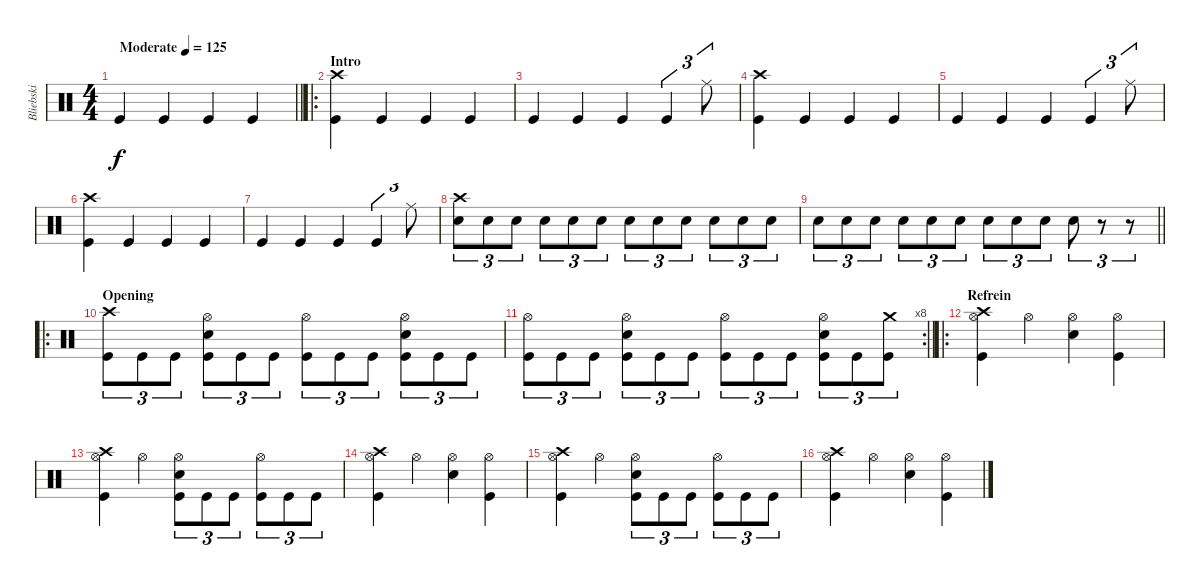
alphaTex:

\track ("Bliebski" "Bliebski") {instrument percussion}
\staff {score}
\articulation defaults
\ts (4 4)
\tempo (125 "Moderate")
\clef neutral
\barLineRight lightlight
\ks c "Kick (hit)".4{dy f} "Kick (hit)".4 "Kick (hit)".4 "Kick (hit)".4
|
\ro
\section ("" "Intro")
("Kick (hit)" "Crash high (hit)").4 "Kick (hit)".4 "Kick (hit)".4 "Kick (hit)".4 |
"Kick (hit)".4 "Kick (hit)".4 "Kick (hit)".4 "Kick (hit)".4{tu (3 2)} "Ride (middle)".8{tu (3 2)} |
("Kick (hit)" "Crash high (hit)").4 "Kick (hit)".4 "Kick (hit)".4 "Kick (hit)".4 |
"Kick (hit)".4 "Kick (hit)".4 "Kick (hit)".4 "Kick (hit)".4{tu (3 2)} "Ride (middle)".8{tu (3 2)} |
("Kick (hit)" "Crash high (hit)").4 "Kick (hit)".4 "Kick (hit)".4 "Kick (hit)".4 |
"Kick (hit)".4 "Kick (hit)".4 "Kick (hit)".4 "Kick (hit)".4{tu (3 2)} "Ride (middle)".8{tu (3 2)} |
("Snare (hit) 2" "Crash high (hit)").8{tu (3 2)} "Snare (hit) 2".8{tu (3 2)} "Snare (hit) 2".8{tu (3 2)} "Snare (hit) 2".8{tu (3 2)} "Snare (hit) 2".8{tu (3 2)} "Snare (hit) 2".8{tu (3 2)} "Snare (hit) 2".8{tu (3 2)} "Snare (hit) 2".8{tu (3 2)} "Snare (hit) 2".8{tu (3 2)} "Snare (hit) 2".8{tu (3 2)} "Snare (hit) 2".8{tu (3 2)} "Snare (hit) 2".8{tu (3 2)} |
\barLineRight lightlight "Snare (hit) 2".8{tu (3 2)} "Snare (hit) 2".8{tu (3 2)} "Snare (hit) 2".8{tu (3 2)} "Snare (hit) 2".8{tu (3 2)} "Snare (hit) 2".8{tu (3 2)} "Snare (hit) 2".8{tu (3 2)} "Snare (hit) 2".8{tu (3 2)} "Snare (hit) 2".8{tu (3 2)} "Snare (hit) 2".8{tu (3 2)} "Snare (hit) 2".8{tu (3 2)}
r.8{tu (3 2)} r.8{tu (3 2)} |
\ro
\section ("" "Opening")
("Crash high (hit)" "Kick (hit)").8{tu (3 2) lyrics (0 "") lyrics (1 "") lyrics (2 "") lyrics (3 "") lyrics (4 "")} "Kick (hit)".8{tu (3 2)} "Kick (hit)".8{tu (3 2)} ("Snare (hit) 2" "Kick (hit)" "Hi-Hat (open)").8{tu (3 2)} "Kick (hit)".8{tu (3 2)} "Kick (hit)".8{tu (3 2)} ("Kick (hit)" "Hi-Hat (open)").8{tu (3 2)} "Kick (hit)".8{tu (3 2)} "Kick (hit)".8{tu (3 2)} ("Snare (hit) 2" "Kick (hit)" "Hi-Hat (open)").8{tu (3 2)} "Kick (hit)".8{tu (3 2)} "Kick (hit)".8{tu (3 2)} |
\rc 8
\barLineRight lightlight
("Kick (hit)" "Hi-Hat (open)").8{tu (3 2)} "Kick (hit)".8{tu (3 2)} "Kick (hit)".8{tu (3 2)} ("Snare (hit) 2" "Kick (hit)" "Hi-Hat (open)").8{tu (3 2)} "Kick (hit)".8{tu (3 2)} "Kick (hit)".8{tu (3 2)} ("Kick (hit)" "Hi-Hat (open)").8{tu (3 2)} "Kick (hit)".8{tu (3 2)} "Kick (hit)".8{tu (3 2)} ("Snare (hit) 2" "Kick (hit)" "Hi-Hat (open)").8{tu (3 2)} "Kick (hit)".8{tu (3 2)} ("Kick (hit)" "Crash medium (hit)").8{tu (3 2)} |
\ro
\section ("" "Refrein")
("Crash high (hit)" "Kick (hit)" "Hi-Hat (open)").4 "Hi-Hat (open)".4 ("Hi-Hat (open)" "Snare (hit) 2").4 ("Kick (hit)" "Hi-Hat (open)").4 |
("Crash high (hit)" "Kick (hit)" "Hi-Hat (open)").4 "Hi-Hat (open)".4 ("Kick (hit)" "Hi-Hat (open)" "Snare (hit) 2").8{tu (3 2)} "Kick (hit)".8{tu (3 2)} "Kick (hit)".8{tu (3 2)} ("Kick (hit)" "Hi-Hat (open)").8{tu (3 2)} "Kick (hit)".8{tu (3 2)} "Kick (hit)".8{tu (3 2)} |
("Crash high (hit)" "Kick (hit)" "Hi-Hat (open)").4 "Hi-Hat (open)".4 ("Hi-Hat (open)" "Snare (hit) 2").4 ("Kick (hit)" "Hi-Hat (open)").4 |
("Crash high (hit)" "Kick (hit)" "Hi-Hat (open)").4 "Hi-Hat (open)".4 ("Kick (hit)" "Hi-Hat (open)" "Snare (hit) 2").8{tu (3 2)} "Kick (hit)".8{tu (3 2)} "Kick (hit)".8{tu (3 2)} ("Kick (hit)" "Hi-Hat (open)").8{tu (3 2)} "Kick (hit)".8{tu (3 2)} "Kick (hit)".8{tu (3 2)} |
("Crash high (hit)" "Kick (hit)" "Hi-Hat (open)").4 "Hi-Hat (open)".4 ("Hi-Hat (open)" "Snare (hit) 2").4 ("Kick (hit)" "Hi-Hat (open)").4
